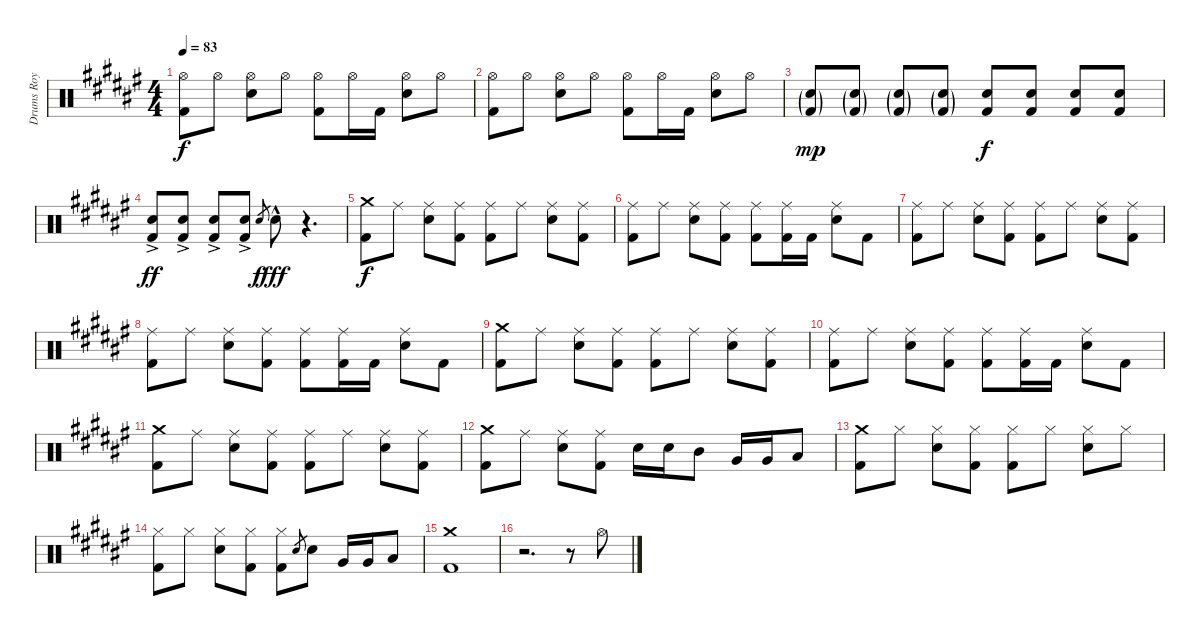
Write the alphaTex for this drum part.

\track ("Drums Roy" "Drums Roy") {instrument percussion}
\staff {score}
\articulation defaults
\ts (4 4)
\tempo 83
\clef neutral
\ks d#minor
("Hi-Hat (open)" "Kick (hit) 2").8{dy f} "Hi-Hat (open)".8 ("Hi-Hat (open)" "Electric Snare (hit)").8 "Hi-Hat (open)".8 ("Hi-Hat (open)" "Kick (hit) 2").8 "Hi-Hat (open)".16 "Kick (hit) 2".16 ("Hi-Hat (open)" "Electric Snare (hit)").8 "Hi-Hat (open)".8 |
("Hi-Hat (open)" "Kick (hit) 2").8 "Hi-Hat (open)".8 ("Hi-Hat (open)" "Electric Snare (hit)").8 "Hi-Hat (open)".8 ("Hi-Hat (open)" "Kick (hit) 2").8 "Hi-Hat (open)".16 "Kick (hit) 2".16 ("Hi-Hat (open)" "Electric Snare (hit)").8 "Hi-Hat (open)".8 |
("Electric Snare (hit)"{g} "Kick (hit) 2"{g}).8{dy mp} ("Electric Snare (hit)"{g} "Kick (hit) 2"{g}).8 ("Electric Snare (hit)"{g} "Kick (hit) 2"{g}).8 ("Electric Snare (hit)"{g} "Kick (hit) 2"{g}).8 ("Electric Snare (hit)" "Kick (hit) 2").8{dy f} ("Electric Snare (hit)" "Kick (hit) 2").8 ("Electric Snare (hit)" "Kick (hit) 2").8 ("Electric Snare (hit)" "Kick (hit) 2").8 |
("Electric Snare (hit)"{ac} "Kick (hit) 2"{ac}).8{dy ff} ("Electric Snare (hit)"{ac} "Kick (hit) 2"{ac}).8 ("Electric Snare (hit)"{ac} "Kick (hit) 2"{ac}).8 ("Electric Snare (hit)"{ac} "Kick (hit) 2"{ac}).8 "Electric Snare (hit)".8{gr dy f} "Electric Snare (hit)"{hac}.8{dy fff} r.4{d} |
("Crash medium (hit)" "Kick (hit) 2").8{dy f} "Ride (middle)".8 ("Ride (middle)" "Electric Snare (hit)").8 ("Ride (middle)" "Kick (hit) 2").8 ("Ride (middle)" "Kick (hit) 2").8 "Ride (middle)".8 ("Ride (middle)" "Electric Snare (hit)").8 ("Ride (middle)" "Kick (hit) 2").8 |
("Ride (middle)" "Kick (hit) 2").8 "Ride (middle)".8 ("Ride (middle)" "Electric Snare (hit)").8 ("Ride (middle)" "Kick (hit) 2").8 ("Ride (middle)" "Kick (hit) 2").8 ("Ride (middle)" "Kick (hit) 2").16 "Kick (hit) 2".16 ("Ride (middle)" "Electric Snare (hit)").8 "Kick (hit) 2".8 |
("Ride (middle)" "Kick (hit) 2").8 "Ride (middle)".8 ("Ride (middle)" "Electric Snare (hit)").8 ("Ride (middle)" "Kick (hit) 2").8 ("Ride (middle)" "Kick (hit) 2").8 "Ride (middle)".8 ("Ride (middle)" "Electric Snare (hit)").8 ("Ride (middle)" "Kick (hit) 2").8 |
("Ride (middle)" "Kick (hit) 2").8 "Ride (middle)".8 ("Ride (middle)" "Electric Snare (hit)").8 ("Ride (middle)" "Kick (hit) 2").8 ("Ride (middle)" "Kick (hit) 2").8 ("Ride (middle)" "Kick (hit) 2").16 "Kick (hit) 2".16 ("Ride (middle)" "Electric Snare (hit)").8 "Kick (hit) 2".8 |
("Crash medium (hit)" "Kick (hit) 2").8 "Ride (middle)".8 ("Ride (middle)" "Electric Snare (hit)").8 ("Ride (middle)" "Kick (hit) 2").8 ("Ride (middle)" "Kick (hit) 2").8 "Ride (middle)".8 ("Ride (middle)" "Electric Snare (hit)").8 ("Ride (middle)" "Kick (hit) 2").8 |
("Ride (middle)" "Kick (hit) 2").8 "Ride (middle)".8 ("Ride (middle)" "Electric Snare (hit)").8 ("Ride (middle)" "Kick (hit) 2").8 ("Ride (middle)" "Kick (hit) 2").8 ("Ride (middle)" "Kick (hit) 2").16 "Kick (hit) 2".16 ("Ride (middle)" "Electric Snare (hit)").8 "Kick (hit) 2".8 |
("Crash medium (hit)" "Kick (hit) 2").8 "Ride (middle)".8 ("Ride (middle)" "Electric Snare (hit)").8 ("Ride (middle)" "Kick (hit) 2").8 ("Ride (middle)" "Kick (hit) 2").8 "Ride (middle)".8 ("Ride (middle)" "Electric Snare (hit)").8 ("Ride (middle)" "Kick (hit) 2").8 |
("Crash medium (hit)" "Kick (hit) 2").8 "Ride (middle)".8 ("Ride (middle)" "Electric Snare (hit)").8 ("Ride (middle)" "Kick (hit) 2").8 "Electric Snare (hit)".16 "Electric Snare (hit)".16 "Mid Tom (hit)".8 "Very Low Tom (hit)".16 "Very Low Tom (hit)".16 "Low Floor Tom (hit)".8 |
("Crash medium (hit)" "Kick (hit) 2").8 "Hi-Hat (closed)".8 ("Hi-Hat (closed)" "Electric Snare (hit)").8 ("Hi-Hat (closed)" "Kick (hit) 2").8 ("Hi-Hat (closed)" "Kick (hit) 2").8 "Hi-Hat (closed)".8 ("Hi-Hat (closed)" "Electric Snare (hit)").8 "Hi-Hat (closed)".8 |
("Hi-Hat (closed)" "Kick (hit) 2").8 "Hi-Hat (closed)".8 ("Hi-Hat (closed)" "Electric Snare (hit)").8 ("Hi-Hat (closed)" "Kick (hit) 2").8 ("Hi-Hat (closed)" "Kick (hit) 2").8 "Electric Snare (hit)".8{gr} "Electric Snare (hit)".8 "Very Low Tom (hit)".16 "Very Low Tom (hit)".16 "Low Floor Tom (hit)".8 |
("Crash medium (hit)" "Kick (hit) 2").1 |
r.2{d} r.8 "Hi-Hat (open)".8
